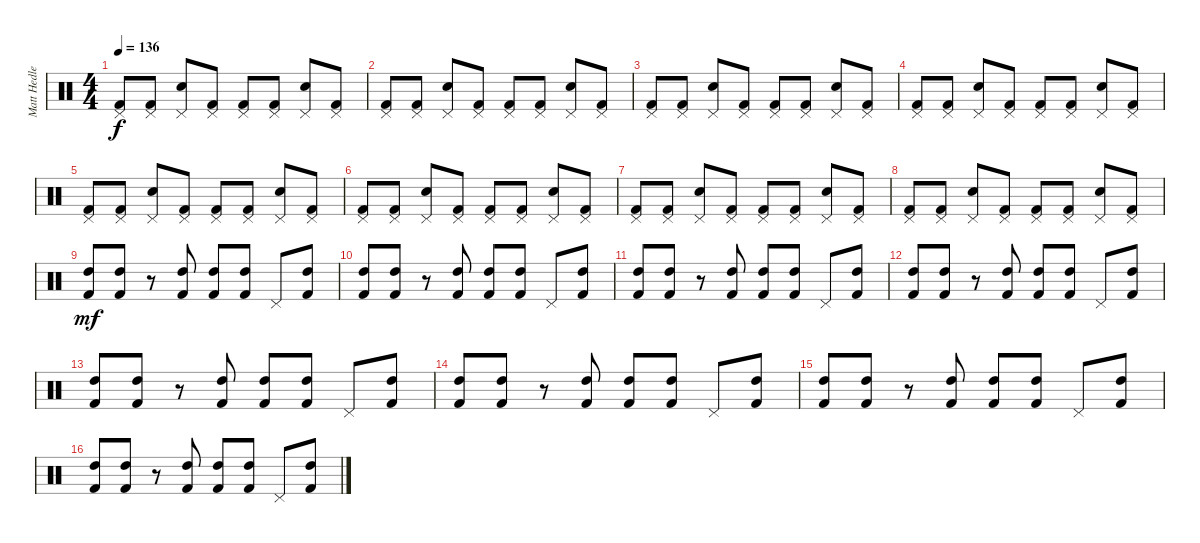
\track ("Matt Hedlers" "Matt Hedle") {instrument percussion}
\staff {score}
\articulation defaults
\ts (4 4)
\tempo 136
\clef neutral
\ks c
("Pedal Hi-Hat (hit)" "Kick (hit) 2").8{dy f} ("Pedal Hi-Hat (hit)" "Kick (hit) 2").8 ("Pedal Hi-Hat (hit)" "Snare (hit) 2").8 ("Pedal Hi-Hat (hit)" "Kick (hit) 2").8 ("Pedal Hi-Hat (hit)" "Kick (hit) 2").8 ("Pedal Hi-Hat (hit)" "Kick (hit) 2").8 ("Pedal Hi-Hat (hit)" "Snare (hit) 2").8 ("Pedal Hi-Hat (hit)" "Kick (hit) 2").8 |
("Pedal Hi-Hat (hit)" "Kick (hit) 2").8 ("Pedal Hi-Hat (hit)" "Kick (hit) 2").8 ("Pedal Hi-Hat (hit)" "Snare (hit) 2").8 ("Pedal Hi-Hat (hit)" "Kick (hit) 2").8 ("Pedal Hi-Hat (hit)" "Kick (hit) 2").8 ("Pedal Hi-Hat (hit)" "Kick (hit) 2").8 ("Pedal Hi-Hat (hit)" "Snare (hit) 2").8 ("Pedal Hi-Hat (hit)" "Kick (hit) 2").8 |
("Pedal Hi-Hat (hit)" "Kick (hit) 2").8 ("Pedal Hi-Hat (hit)" "Kick (hit) 2").8 ("Pedal Hi-Hat (hit)" "Snare (hit) 2").8 ("Pedal Hi-Hat (hit)" "Kick (hit) 2").8 ("Pedal Hi-Hat (hit)" "Kick (hit) 2").8 ("Pedal Hi-Hat (hit)" "Kick (hit) 2").8 ("Pedal Hi-Hat (hit)" "Snare (hit) 2").8 ("Pedal Hi-Hat (hit)" "Kick (hit) 2").8 |
("Pedal Hi-Hat (hit)" "Kick (hit) 2").8 ("Pedal Hi-Hat (hit)" "Kick (hit) 2").8 ("Pedal Hi-Hat (hit)" "Snare (hit) 2").8 ("Pedal Hi-Hat (hit)" "Kick (hit) 2").8 ("Pedal Hi-Hat (hit)" "Kick (hit) 2").8 ("Pedal Hi-Hat (hit)" "Kick (hit) 2").8 ("Pedal Hi-Hat (hit)" "Snare (hit) 2").8 ("Pedal Hi-Hat (hit)" "Kick (hit) 2").8 |
("Pedal Hi-Hat (hit)" "Kick (hit) 2").8 ("Pedal Hi-Hat (hit)" "Kick (hit) 2").8 ("Pedal Hi-Hat (hit)" "Snare (hit) 2").8 ("Pedal Hi-Hat (hit)" "Kick (hit) 2").8 ("Pedal Hi-Hat (hit)" "Kick (hit) 2").8 ("Pedal Hi-Hat (hit)" "Kick (hit) 2").8 ("Pedal Hi-Hat (hit)" "Snare (hit) 2").8 ("Pedal Hi-Hat (hit)" "Kick (hit) 2").8 |
("Pedal Hi-Hat (hit)" "Kick (hit) 2").8 ("Pedal Hi-Hat (hit)" "Kick (hit) 2").8 ("Pedal Hi-Hat (hit)" "Snare (hit) 2").8 ("Pedal Hi-Hat (hit)" "Kick (hit) 2").8 ("Pedal Hi-Hat (hit)" "Kick (hit) 2").8 ("Pedal Hi-Hat (hit)" "Kick (hit) 2").8 ("Pedal Hi-Hat (hit)" "Snare (hit) 2").8 ("Pedal Hi-Hat (hit)" "Kick (hit) 2").8 |
("Pedal Hi-Hat (hit)" "Kick (hit) 2").8 ("Pedal Hi-Hat (hit)" "Kick (hit) 2").8 ("Pedal Hi-Hat (hit)" "Snare (hit) 2").8 ("Pedal Hi-Hat (hit)" "Kick (hit) 2").8 ("Pedal Hi-Hat (hit)" "Kick (hit) 2").8 ("Pedal Hi-Hat (hit)" "Kick (hit) 2").8 ("Pedal Hi-Hat (hit)" "Snare (hit) 2").8 ("Pedal Hi-Hat (hit)" "Kick (hit) 2").8 |
("Pedal Hi-Hat (hit)" "Kick (hit) 2").8 ("Pedal Hi-Hat (hit)" "Kick (hit) 2").8 ("Pedal Hi-Hat (hit)" "Snare (hit) 2").8 ("Pedal Hi-Hat (hit)" "Kick (hit) 2").8 ("Pedal Hi-Hat (hit)" "Kick (hit) 2").8 ("Pedal Hi-Hat (hit)" "Kick (hit) 2").8 ("Pedal Hi-Hat (hit)" "Snare (hit) 2").8 ("Pedal Hi-Hat (hit)" "Kick (hit) 2").8 |
("High Tom (hit)" "Kick (hit) 2").8{dy mf} ("High Tom (hit)" "Kick (hit) 2").8 r.8 ("High Tom (hit)" "Kick (hit) 2").8 ("High Tom (hit)" "Kick (hit) 2").8 ("High Tom (hit)" "Kick (hit) 2").8 "Pedal Hi-Hat (hit)".8 ("High Tom (hit)" "Kick (hit) 2").8 |
("High Tom (hit)" "Kick (hit) 2").8 ("High Tom (hit)" "Kick (hit) 2").8 r.8 ("High Tom (hit)" "Kick (hit) 2").8 ("High Tom (hit)" "Kick (hit) 2").8 ("High Tom (hit)" "Kick (hit) 2").8 "Pedal Hi-Hat (hit)".8 ("High Tom (hit)" "Kick (hit) 2").8 |
("High Tom (hit)" "Kick (hit) 2").8 ("High Tom (hit)" "Kick (hit) 2").8 r.8 ("High Tom (hit)" "Kick (hit) 2").8 ("High Tom (hit)" "Kick (hit) 2").8 ("High Tom (hit)" "Kick (hit) 2").8 "Pedal Hi-Hat (hit)".8 ("High Tom (hit)" "Kick (hit) 2").8 |
("High Tom (hit)" "Kick (hit) 2").8 ("High Tom (hit)" "Kick (hit) 2").8 r.8 ("High Tom (hit)" "Kick (hit) 2").8 ("High Tom (hit)" "Kick (hit) 2").8 ("High Tom (hit)" "Kick (hit) 2").8 "Pedal Hi-Hat (hit)".8 ("High Tom (hit)" "Kick (hit) 2").8 |
("High Tom (hit)" "Kick (hit) 2").8 ("High Tom (hit)" "Kick (hit) 2").8 r.8 ("High Tom (hit)" "Kick (hit) 2").8 ("High Tom (hit)" "Kick (hit) 2").8 ("High Tom (hit)" "Kick (hit) 2").8 "Pedal Hi-Hat (hit)".8 ("High Tom (hit)" "Kick (hit) 2").8 |
("High Tom (hit)" "Kick (hit) 2").8 ("High Tom (hit)" "Kick (hit) 2").8 r.8 ("High Tom (hit)" "Kick (hit) 2").8 ("High Tom (hit)" "Kick (hit) 2").8 ("High Tom (hit)" "Kick (hit) 2").8 "Pedal Hi-Hat (hit)".8 ("High Tom (hit)" "Kick (hit) 2").8 |
("High Tom (hit)" "Kick (hit) 2").8 ("High Tom (hit)" "Kick (hit) 2").8 r.8 ("High Tom (hit)" "Kick (hit) 2").8 ("High Tom (hit)" "Kick (hit) 2").8 ("High Tom (hit)" "Kick (hit) 2").8 "Pedal Hi-Hat (hit)".8 ("High Tom (hit)" "Kick (hit) 2").8 |
("High Tom (hit)" "Kick (hit) 2").8 ("High Tom (hit)" "Kick (hit) 2").8 r.8 ("High Tom (hit)" "Kick (hit) 2").8 ("High Tom (hit)" "Kick (hit) 2").8 ("High Tom (hit)" "Kick (hit) 2").8 "Pedal Hi-Hat (hit)".8 ("High Tom (hit)" "Kick (hit) 2").8
